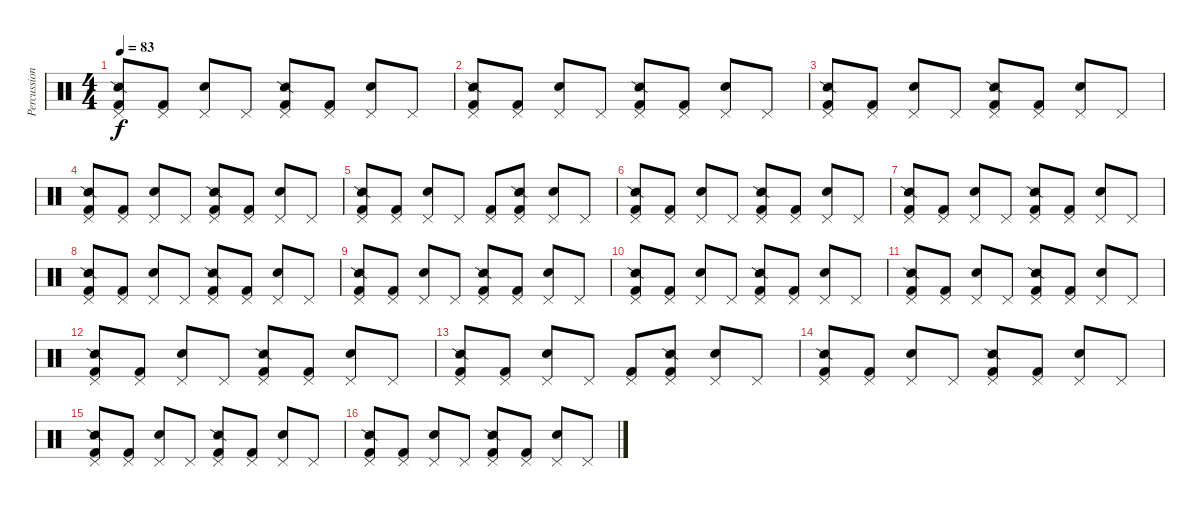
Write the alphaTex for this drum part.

\track ("Percussion" "Percussion") {instrument percussion}
\staff {score}
\articulation defaults
\ts (4 4)
\tempo 83
\clef neutral
\ks c
("Snare (side stick) 2" "Kick (hit) 2" "Pedal Hi-Hat (hit)").8{dy f} ("Kick (hit) 2" "Pedal Hi-Hat (hit)").8 ("Electric Snare (hit)" "Pedal Hi-Hat (hit)").8 "Pedal Hi-Hat (hit)".8 ("Snare (side stick) 2" "Kick (hit) 2" "Pedal Hi-Hat (hit)").8 ("Kick (hit) 2" "Pedal Hi-Hat (hit)").8 ("Electric Snare (hit)" "Pedal Hi-Hat (hit)").8 "Pedal Hi-Hat (hit)".8 |
("Snare (side stick) 2" "Kick (hit) 2" "Pedal Hi-Hat (hit)").8 ("Kick (hit) 2" "Pedal Hi-Hat (hit)").8 ("Electric Snare (hit)" "Pedal Hi-Hat (hit)").8 "Pedal Hi-Hat (hit)".8 ("Snare (side stick) 2" "Kick (hit) 2" "Pedal Hi-Hat (hit)").8 ("Kick (hit) 2" "Pedal Hi-Hat (hit)").8 ("Electric Snare (hit)" "Pedal Hi-Hat (hit)").8 "Pedal Hi-Hat (hit)".8 |
("Snare (side stick) 2" "Kick (hit) 2" "Pedal Hi-Hat (hit)").8 ("Kick (hit) 2" "Pedal Hi-Hat (hit)").8 ("Electric Snare (hit)" "Pedal Hi-Hat (hit)").8 "Pedal Hi-Hat (hit)".8 ("Snare (side stick) 2" "Kick (hit) 2" "Pedal Hi-Hat (hit)").8 ("Kick (hit) 2" "Pedal Hi-Hat (hit)").8 ("Electric Snare (hit)" "Pedal Hi-Hat (hit)").8 "Pedal Hi-Hat (hit)".8 |
("Snare (side stick) 2" "Kick (hit) 2" "Pedal Hi-Hat (hit)").8 ("Kick (hit) 2" "Pedal Hi-Hat (hit)").8 ("Electric Snare (hit)" "Pedal Hi-Hat (hit)").8 "Pedal Hi-Hat (hit)".8 ("Snare (side stick) 2" "Kick (hit) 2" "Pedal Hi-Hat (hit)").8 ("Kick (hit) 2" "Pedal Hi-Hat (hit)").8 ("Electric Snare (hit)" "Pedal Hi-Hat (hit)").8 "Pedal Hi-Hat (hit)".8 |
("Snare (side stick) 2" "Kick (hit) 2" "Pedal Hi-Hat (hit)").8 ("Kick (hit) 2" "Pedal Hi-Hat (hit)").8 ("Snare (hit) 2" "Pedal Hi-Hat (hit)").8 "Pedal Hi-Hat (hit)".8 ("Kick (hit) 2" "Pedal Hi-Hat (hit)").8 ("Snare (side stick) 2" "Kick (hit) 2" "Pedal Hi-Hat (hit)").8 ("Snare (hit) 2" "Pedal Hi-Hat (hit)").8 "Pedal Hi-Hat (hit)".8 |
("Snare (side stick) 2" "Kick (hit) 2" "Pedal Hi-Hat (hit)").8 ("Kick (hit) 2" "Pedal Hi-Hat (hit)").8 ("Snare (hit) 2" "Pedal Hi-Hat (hit)").8 "Pedal Hi-Hat (hit)".8 ("Snare (side stick) 2" "Kick (hit) 2" "Pedal Hi-Hat (hit)").8 ("Kick (hit) 2" "Pedal Hi-Hat (hit)").8 ("Snare (hit) 2" "Pedal Hi-Hat (hit)").8 "Pedal Hi-Hat (hit)".8 |
("Snare (side stick) 2" "Kick (hit) 2" "Pedal Hi-Hat (hit)").8 ("Kick (hit) 2" "Pedal Hi-Hat (hit)").8 ("Snare (hit) 2" "Pedal Hi-Hat (hit)").8 "Pedal Hi-Hat (hit)".8 ("Snare (side stick) 2" "Kick (hit) 2" "Pedal Hi-Hat (hit)").8 ("Kick (hit) 2" "Pedal Hi-Hat (hit)").8 ("Snare (hit) 2" "Pedal Hi-Hat (hit)").8 "Pedal Hi-Hat (hit)".8 |
("Snare (side stick) 2" "Kick (hit) 2" "Pedal Hi-Hat (hit)").8 ("Kick (hit) 2" "Pedal Hi-Hat (hit)").8 ("Snare (hit) 2" "Pedal Hi-Hat (hit)").8 "Pedal Hi-Hat (hit)".8 ("Snare (side stick) 2" "Kick (hit) 2" "Pedal Hi-Hat (hit)").8 ("Kick (hit) 2" "Pedal Hi-Hat (hit)").8 ("Snare (hit) 2" "Pedal Hi-Hat (hit)").8 "Pedal Hi-Hat (hit)".8 |
("Snare (side stick) 2" "Kick (hit) 2" "Pedal Hi-Hat (hit)").8 ("Kick (hit) 2" "Pedal Hi-Hat (hit)").8 ("Electric Snare (hit)" "Pedal Hi-Hat (hit)").8 "Pedal Hi-Hat (hit)".8 ("Snare (side stick) 2" "Kick (hit) 2" "Pedal Hi-Hat (hit)").8 ("Kick (hit) 2" "Pedal Hi-Hat (hit)").8 ("Electric Snare (hit)" "Pedal Hi-Hat (hit)").8 "Pedal Hi-Hat (hit)".8 |
("Snare (side stick) 2" "Kick (hit) 2" "Pedal Hi-Hat (hit)").8 ("Kick (hit) 2" "Pedal Hi-Hat (hit)").8 ("Electric Snare (hit)" "Pedal Hi-Hat (hit)").8 "Pedal Hi-Hat (hit)".8 ("Snare (side stick) 2" "Kick (hit) 2" "Pedal Hi-Hat (hit)").8 ("Kick (hit) 2" "Pedal Hi-Hat (hit)").8 ("Electric Snare (hit)" "Pedal Hi-Hat (hit)").8 "Pedal Hi-Hat (hit)".8 |
("Snare (side stick) 2" "Kick (hit) 2" "Pedal Hi-Hat (hit)").8 ("Kick (hit) 2" "Pedal Hi-Hat (hit)").8 ("Electric Snare (hit)" "Pedal Hi-Hat (hit)").8 "Pedal Hi-Hat (hit)".8 ("Snare (side stick) 2" "Kick (hit) 2" "Pedal Hi-Hat (hit)").8 ("Kick (hit) 2" "Pedal Hi-Hat (hit)").8 ("Electric Snare (hit)" "Pedal Hi-Hat (hit)").8 "Pedal Hi-Hat (hit)".8 |
("Snare (side stick) 2" "Kick (hit) 2" "Pedal Hi-Hat (hit)").8 ("Kick (hit) 2" "Pedal Hi-Hat (hit)").8 ("Electric Snare (hit)" "Pedal Hi-Hat (hit)").8 "Pedal Hi-Hat (hit)".8 ("Snare (side stick) 2" "Kick (hit) 2" "Pedal Hi-Hat (hit)").8 ("Kick (hit) 2" "Pedal Hi-Hat (hit)").8 ("Electric Snare (hit)" "Pedal Hi-Hat (hit)").8 "Pedal Hi-Hat (hit)".8 |
("Snare (side stick) 2" "Kick (hit) 2" "Pedal Hi-Hat (hit)").8 ("Kick (hit) 2" "Pedal Hi-Hat (hit)").8 ("Snare (hit) 2" "Pedal Hi-Hat (hit)").8 "Pedal Hi-Hat (hit)".8 ("Kick (hit) 2" "Pedal Hi-Hat (hit)").8 ("Snare (side stick) 2" "Kick (hit) 2" "Pedal Hi-Hat (hit)").8 ("Snare (hit) 2" "Pedal Hi-Hat (hit)").8 "Pedal Hi-Hat (hit)".8 |
("Snare (side stick) 2" "Kick (hit) 2" "Pedal Hi-Hat (hit)").8 ("Kick (hit) 2" "Pedal Hi-Hat (hit)").8 ("Snare (hit) 2" "Pedal Hi-Hat (hit)").8 "Pedal Hi-Hat (hit)".8 ("Snare (side stick) 2" "Kick (hit) 2" "Pedal Hi-Hat (hit)").8 ("Kick (hit) 2" "Pedal Hi-Hat (hit)").8 ("Snare (hit) 2" "Pedal Hi-Hat (hit)").8 "Pedal Hi-Hat (hit)".8 |
("Snare (side stick) 2" "Kick (hit) 2" "Pedal Hi-Hat (hit)").8 ("Kick (hit) 2" "Pedal Hi-Hat (hit)").8 ("Snare (hit) 2" "Pedal Hi-Hat (hit)").8 "Pedal Hi-Hat (hit)".8 ("Snare (side stick) 2" "Kick (hit) 2" "Pedal Hi-Hat (hit)").8 ("Kick (hit) 2" "Pedal Hi-Hat (hit)").8 ("Snare (hit) 2" "Pedal Hi-Hat (hit)").8 "Pedal Hi-Hat (hit)".8 |
("Snare (side stick) 2" "Kick (hit) 2" "Pedal Hi-Hat (hit)").8 ("Kick (hit) 2" "Pedal Hi-Hat (hit)").8 ("Snare (hit) 2" "Pedal Hi-Hat (hit)").8 "Pedal Hi-Hat (hit)".8 ("Snare (side stick) 2" "Kick (hit) 2" "Pedal Hi-Hat (hit)").8 ("Kick (hit) 2" "Pedal Hi-Hat (hit)").8 ("Snare (hit) 2" "Pedal Hi-Hat (hit)").8 "Pedal Hi-Hat (hit)".8
